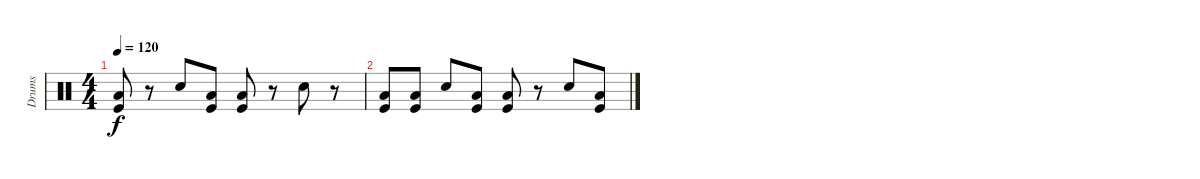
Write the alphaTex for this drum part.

\track ("Drums" "Drums") {instrument percussion}
\staff
\articulation defaults
\ts (4 4)
\tempo 120
\clef neutral
\ks c
("Kick (hit)" "Low Floor Tom (hit)").8{dy f} r.8 "Snare (hit) 2".8 ("Kick (hit)" "Low Floor Tom (hit)").8 ("Kick (hit)" "Low Floor Tom (hit)").8 r.8 "Snare (hit) 2".8 r.8 |
("Kick (hit)" "Low Floor Tom (hit)").8 ("Kick (hit)" "Low Floor Tom (hit)").8 "Snare (hit) 2".8 ("Kick (hit)" "Low Floor Tom (hit)").8 ("Kick (hit)" "Low Floor Tom (hit)").8 r.8 "Snare (hit) 2".8 ("Kick (hit)" "Low Floor Tom (hit)").8
